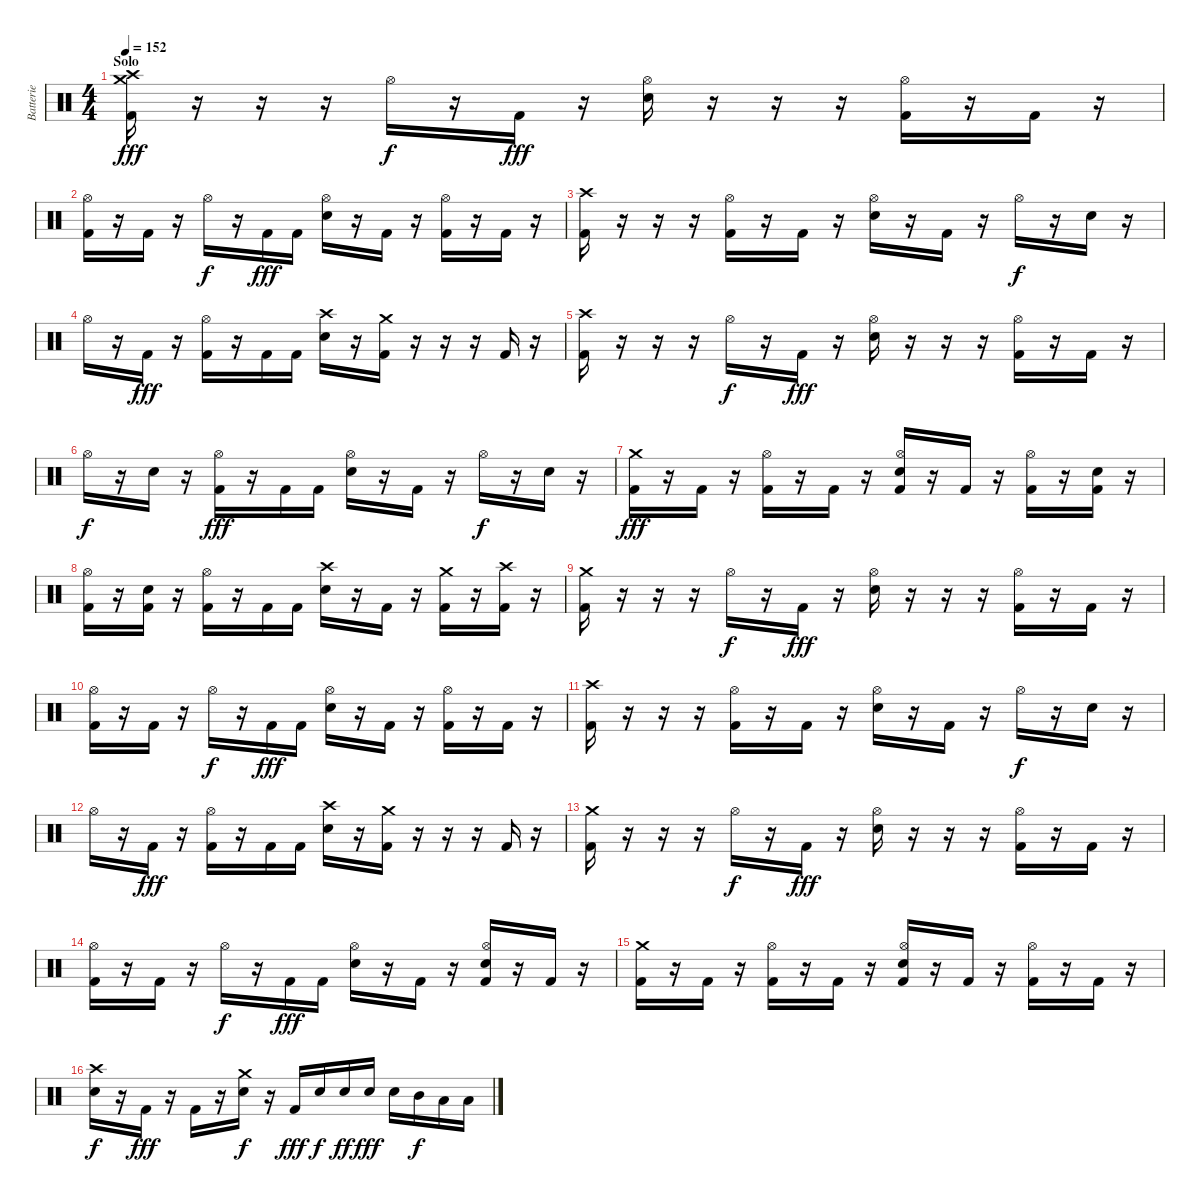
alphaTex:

\track ("Batterie" "Batterie") {instrument percussion}
\staff {score}
\articulation defaults
\ts (4 4)
\section ("" "Solo")
\tempo 152
\clef neutral
\ks c
("Crash high (hit)" "Crash medium (hit)" "Kick (hit) 2").16{dy fff} r.16 r.16 r.16 "Hi-Hat (open)".16{dy f} r.16 "Kick (hit) 2".16{dy fff} r.16 ("Hi-Hat (open)" "Electric Snare (hit)").16 r.16 r.16 r.16 ("Hi-Hat (open)" "Kick (hit) 2").16 r.16 "Kick (hit) 2".16 r.16 |
("Hi-Hat (open)" "Kick (hit) 2").16 r.16 "Kick (hit) 2".16 r.16 "Hi-Hat (open)".16{dy f} r.16 "Kick (hit) 2".16{dy fff} "Kick (hit) 2".16 ("Hi-Hat (open)" "Electric Snare (hit)").16 r.16 "Kick (hit) 2".16 r.16 ("Hi-Hat (open)" "Kick (hit) 2").16 r.16 "Kick (hit) 2".16 r.16 |
("Crash high (hit)" "Kick (hit) 2").16 r.16 r.16 r.16 ("Hi-Hat (open)" "Kick (hit) 2").16 r.16 "Kick (hit) 2".16 r.16 ("Hi-Hat (open)" "Electric Snare (hit)").16 r.16 "Kick (hit) 2".16 r.16 "Hi-Hat (open)".16{dy f} r.16 "Electric Snare (hit)".16 r.16 |
"Hi-Hat (open)".16 r.16 "Kick (hit) 2".16{dy fff} r.16 ("Hi-Hat (open)" "Kick (hit) 2").16 r.16 "Kick (hit) 2".16 "Kick (hit) 2".16 ("Crash high (hit)" "Electric Snare (hit)").16 r.16 ("Crash medium (hit)" "Kick (hit) 2").16 r.16 r.16 r.16 "Kick (hit) 2".16 r.16 |
("Crash high (hit)" "Kick (hit) 2").16 r.16 r.16 r.16 "Hi-Hat (open)".16{dy f} r.16 "Kick (hit) 2".16{dy fff} r.16 ("Hi-Hat (open)" "Electric Snare (hit)").16 r.16 r.16 r.16 ("Hi-Hat (open)" "Kick (hit) 2").16 r.16 "Kick (hit) 2".16 r.16 |
"Hi-Hat (open)".16{dy f} r.16 "Electric Snare (hit)".16 r.16 ("Hi-Hat (open)" "Kick (hit) 2").16{dy fff} r.16 "Kick (hit) 2".16 "Kick (hit) 2".16 ("Hi-Hat (open)" "Electric Snare (hit)").16 r.16 "Kick (hit) 2".16 r.16 "Hi-Hat (open)".16{dy f} r.16 "Electric Snare (hit)".16 r.16 |
("Crash medium (hit)" "Kick (hit) 2").16{dy fff} r.16 "Kick (hit) 2".16 r.16 ("Hi-Hat (open)" "Kick (hit) 2").16 r.16 "Kick (hit) 2".16 r.16 ("Hi-Hat (open)" "Electric Snare (hit)" "Kick (hit) 2").16 r.16 "Kick (hit) 2".16 r.16 ("Hi-Hat (open)" "Kick (hit) 2").16 r.16 ("Electric Snare (hit)" "Kick (hit) 2").16 r.16 |
("Hi-Hat (open)" "Kick (hit) 2").16 r.16 ("Electric Snare (hit)" "Kick (hit) 2").16 r.16 ("Hi-Hat (open)" "Kick (hit) 2").16 r.16 "Kick (hit) 2".16 "Kick (hit) 2".16 ("Crash high (hit)" "Electric Snare (hit)").16 r.16 "Kick (hit) 2".16 r.16 ("Crash medium (hit)" "Kick (hit) 2").16 r.16 ("Crash high (hit)" "Kick (hit) 2").16 r.16 |
("Crash medium (hit)" "Kick (hit) 2").16 r.16 r.16 r.16 "Hi-Hat (open)".16{dy f} r.16 "Kick (hit) 2".16{dy fff} r.16 ("Hi-Hat (open)" "Electric Snare (hit)").16 r.16 r.16 r.16 ("Hi-Hat (open)" "Kick (hit) 2").16 r.16 "Kick (hit) 2".16 r.16 |
("Hi-Hat (open)" "Kick (hit) 2").16 r.16 "Kick (hit) 2".16 r.16 "Hi-Hat (open)".16{dy f} r.16 "Kick (hit) 2".16{dy fff} "Kick (hit) 2".16 ("Hi-Hat (open)" "Electric Snare (hit)").16 r.16 "Kick (hit) 2".16 r.16 ("Hi-Hat (open)" "Kick (hit) 2").16 r.16 "Kick (hit) 2".16 r.16 |
("Crash high (hit)" "Kick (hit) 2").16 r.16 r.16 r.16 ("Hi-Hat (open)" "Kick (hit) 2").16 r.16 "Kick (hit) 2".16 r.16 ("Hi-Hat (open)" "Electric Snare (hit)").16 r.16 "Kick (hit) 2".16 r.16 "Hi-Hat (open)".16{dy f} r.16 "Electric Snare (hit)".16 r.16 |
"Hi-Hat (open)".16 r.16 "Kick (hit) 2".16{dy fff} r.16 ("Hi-Hat (open)" "Kick (hit) 2").16 r.16 "Kick (hit) 2".16 "Kick (hit) 2".16 ("Crash high (hit)" "Electric Snare (hit)").16 r.16 ("Crash medium (hit)" "Kick (hit) 2").16 r.16 r.16 r.16 "Kick (hit) 2".16 r.16 |
("Crash medium (hit)" "Kick (hit) 2").16 r.16 r.16 r.16 "Hi-Hat (open)".16{dy f} r.16 "Kick (hit) 2".16{dy fff} r.16 ("Hi-Hat (open)" "Electric Snare (hit)").16 r.16 r.16 r.16 ("Hi-Hat (open)" "Kick (hit) 2").16 r.16 "Kick (hit) 2".16 r.16 |
("Hi-Hat (open)" "Kick (hit) 2").16 r.16 "Kick (hit) 2".16 r.16 "Hi-Hat (open)".16{dy f} r.16 "Kick (hit) 2".16{dy fff} "Kick (hit) 2".16 ("Hi-Hat (open)" "Electric Snare (hit)").16 r.16 "Kick (hit) 2".16 r.16 ("Hi-Hat (open)" "Electric Snare (hit)" "Kick (hit) 2").16 r.16 "Kick (hit) 2".16 r.16 |
("Crash medium (hit)" "Kick (hit) 2").16 r.16 "Kick (hit) 2".16 r.16 ("Hi-Hat (open)" "Kick (hit) 2").16 r.16 "Kick (hit) 2".16 r.16 ("Hi-Hat (open)" "Electric Snare (hit)" "Kick (hit) 2").16 r.16 "Kick (hit) 2".16 r.16 ("Hi-Hat (open)" "Kick (hit) 2").16 r.16 "Kick (hit) 2".16 r.16 |
("Crash high (hit)" "Electric Snare (hit)").16{dy f} r.16 "Kick (hit) 2".16{dy fff} r.16 "Kick (hit) 2".16 r.16 ("Crash medium (hit)" "Electric Snare (hit)").16{dy f} r.16 "Kick (hit) 2".16{dy fff} "Electric Snare (hit)".16{dy f} "Electric Snare (hit)".16{dy ff} "Electric Snare (hit)".16{dy fff} "Electric Snare (hit)".16 "Mid Tom (hit)".16{dy f} "Low Tom (hit)".16 "Low Floor Tom (hit)".16
